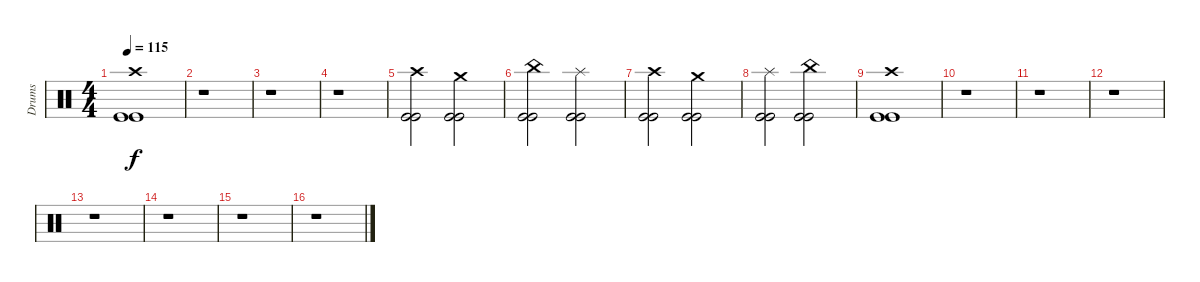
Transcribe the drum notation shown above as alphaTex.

\track ("Drums" "Drums") {instrument percussion}
\staff {score}
\articulation defaults
\ts (4 4)
\tempo 115
\clef neutral
\ks c
("Kick (hit)" "Kick (hit)" "Crash high (hit)").1{dy f} |
r.1 |
r.1 |
r.1 |
("Kick (hit)" "Kick (hit)" "Crash high (hit)").2 ("Kick (hit)" "Kick (hit)" "Crash medium (hit)").2 |
("Kick (hit)" "Kick (hit)" "China (hit)").2 ("Kick (hit)" "Kick (hit)" "Splash (hit)").2 |
("Kick (hit)" "Kick (hit)" "Crash high (hit)").2 ("Kick (hit)" "Kick (hit)" "Crash medium (hit)").2 |
("Kick (hit)" "Kick (hit)" "Splash (hit)").2 ("Kick (hit)" "Kick (hit)" "China (hit)").2 |
("Kick (hit)" "Kick (hit)" "Crash high (hit)").1 |
r.1 |
r.1 |
r.1 |
r.1 |
r.1 |
r.1 |
r.1
